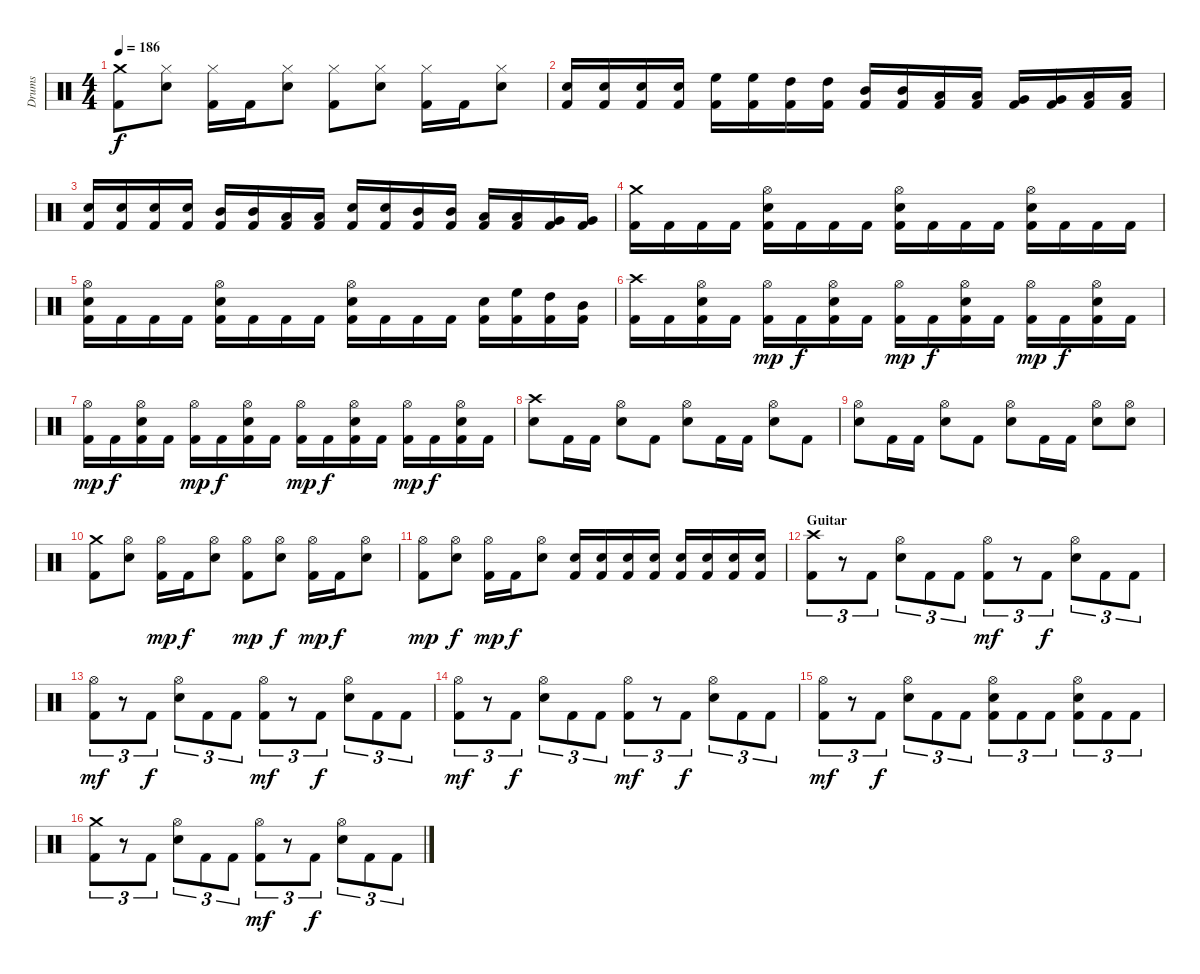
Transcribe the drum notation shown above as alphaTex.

\track ("Drums" "Drums") {instrument percussion}
\staff {score}
\articulation defaults
\ts (4 4)
\tempo 186
\clef neutral
\ks c
("Kick (hit) 2" "Crash medium (hit)").8{dy f} ("Snare (hit) 2" "Hi-Hat (closed)").8 ("Kick (hit) 2" "Hi-Hat (closed)").16 "Kick (hit) 2".16 ("Snare (hit) 2" "Hi-Hat (closed)").8 ("Kick (hit) 2" "Hi-Hat (closed)").8 ("Snare (hit) 2" "Hi-Hat (closed)").8 ("Kick (hit) 2" "Hi-Hat (closed)").16 "Kick (hit) 2".16 ("Snare (hit) 2" "Hi-Hat (closed)").8 |
("Kick (hit) 2" "Snare (hit) 2").16 ("Kick (hit) 2" "Snare (hit) 2").16 ("Kick (hit) 2" "Snare (hit) 2").16 ("Kick (hit) 2" "Snare (hit) 2").16 ("Kick (hit) 2" "High Floor Tom (hit)").16 ("Kick (hit) 2" "High Floor Tom (hit)").16 ("Kick (hit) 2" "High Tom (hit)").16 ("Kick (hit) 2" "High Tom (hit)").16 ("Kick (hit) 2" "Mid Tom (hit)").16 ("Kick (hit) 2" "Mid Tom (hit)").16 ("Kick (hit) 2" "Low Tom (hit)").16 ("Kick (hit) 2" "Low Tom (hit)").16 ("Kick (hit) 2" "Very Low Tom (hit)").16 ("Kick (hit) 2" "Very Low Tom (hit)").16 ("Kick (hit) 2" "Low Floor Tom (hit)").16 ("Kick (hit) 2" "Low Floor Tom (hit)").16 |
("Kick (hit) 2" "Snare (hit) 2").16 ("Kick (hit) 2" "Snare (hit) 2").16 ("Kick (hit) 2" "Snare (hit) 2").16 ("Kick (hit) 2" "Snare (hit) 2").16 ("Kick (hit) 2" "Mid Tom (hit)").16 ("Kick (hit) 2" "Mid Tom (hit)").16 ("Kick (hit) 2" "Low Tom (hit)").16 ("Kick (hit) 2" "Low Tom (hit)").16 ("Kick (hit) 2" "Snare (hit) 2").16 ("Kick (hit) 2" "Snare (hit) 2").16 ("Kick (hit) 2" "Mid Tom (hit)").16 ("Kick (hit) 2" "Mid Tom (hit)").16 ("Kick (hit) 2" "Low Tom (hit)").16 ("Kick (hit) 2" "Low Tom (hit)").16 ("Kick (hit) 2" "Very Low Tom (hit)").16 ("Kick (hit) 2" "Very Low Tom (hit)").16 |
\section ("" "")
("Kick (hit) 2" "Crash medium (hit)").16 "Kick (hit) 2".16 "Kick (hit) 2".16 "Kick (hit) 2".16 ("Kick (hit) 2" "Snare (hit) 2" "Hi-Hat (open)").16 "Kick (hit) 2".16 "Kick (hit) 2".16 "Kick (hit) 2".16 ("Kick (hit) 2" "Snare (hit) 2" "Hi-Hat (open)").16 "Kick (hit) 2".16 "Kick (hit) 2".16 "Kick (hit) 2".16 ("Kick (hit) 2" "Snare (hit) 2" "Hi-Hat (open)").16 "Kick (hit) 2".16 "Kick (hit) 2".16 "Kick (hit) 2".16 |
("Kick (hit) 2" "Snare (hit) 2" "Hi-Hat (open)").16 "Kick (hit) 2".16 "Kick (hit) 2".16 "Kick (hit) 2".16 ("Kick (hit) 2" "Snare (hit) 2" "Hi-Hat (open)").16 "Kick (hit) 2".16 "Kick (hit) 2".16 "Kick (hit) 2".16 ("Kick (hit) 2" "Snare (hit) 2" "Hi-Hat (open)").16 "Kick (hit) 2".16 "Kick (hit) 2".16 "Kick (hit) 2".16 ("Kick (hit) 2" "Snare (hit) 2").16 ("Kick (hit) 2" "High Floor Tom (hit)").16 ("Kick (hit) 2" "High Tom (hit)").16 ("Kick (hit) 2" "Mid Tom (hit)").16 |
("Kick (hit) 2" "Crash high (hit)").16 "Kick (hit) 2".16 ("Kick (hit) 2" "Snare (hit) 2" "Hi-Hat (open)").16 "Kick (hit) 2".16 ("Kick (hit) 2" "Hi-Hat (open)").16{dy mp} "Kick (hit) 2".16{dy f} ("Kick (hit) 2" "Snare (hit) 2" "Hi-Hat (open)").16 "Kick (hit) 2".16 ("Kick (hit) 2" "Hi-Hat (open)").16{dy mp} "Kick (hit) 2".16{dy f} ("Kick (hit) 2" "Snare (hit) 2" "Hi-Hat (open)").16 "Kick (hit) 2".16 ("Kick (hit) 2" "Hi-Hat (open)").16{dy mp} "Kick (hit) 2".16{dy f} ("Kick (hit) 2" "Snare (hit) 2" "Hi-Hat (open)").16 "Kick (hit) 2".16 |
("Kick (hit) 2" "Hi-Hat (open)").16{dy mp} "Kick (hit) 2".16{dy f} ("Kick (hit) 2" "Snare (hit) 2" "Hi-Hat (open)").16 "Kick (hit) 2".16 ("Kick (hit) 2" "Hi-Hat (open)").16{dy mp} "Kick (hit) 2".16{dy f} ("Kick (hit) 2" "Snare (hit) 2" "Hi-Hat (open)").16 "Kick (hit) 2".16 ("Kick (hit) 2" "Hi-Hat (open)").16{dy mp} "Kick (hit) 2".16{dy f} ("Kick (hit) 2" "Snare (hit) 2" "Hi-Hat (open)").16 "Kick (hit) 2".16 ("Kick (hit) 2" "Hi-Hat (open)").16{dy mp} "Kick (hit) 2".16{dy f} ("Kick (hit) 2" "Snare (hit) 2" "Hi-Hat (open)").16 "Kick (hit) 2".16 |
\section ("" "")
("Snare (hit) 2" "Crash high (hit)").8 "Kick (hit) 2".16 "Kick (hit) 2".16 ("Snare (hit) 2" "Hi-Hat (open)").8 "Kick (hit) 2".8 ("Snare (hit) 2" "Hi-Hat (open)").8 "Kick (hit) 2".16 "Kick (hit) 2".16 ("Snare (hit) 2" "Hi-Hat (open)").8 "Kick (hit) 2".8 |
("Snare (hit) 2" "Hi-Hat (open)").8 "Kick (hit) 2".16 "Kick (hit) 2".16 ("Snare (hit) 2" "Hi-Hat (open)").8 "Kick (hit) 2".8 ("Snare (hit) 2" "Hi-Hat (open)").8 "Kick (hit) 2".16 "Kick (hit) 2".16 ("Snare (hit) 2" "Hi-Hat (open)").8 ("Snare (hit) 2" "Hi-Hat (open)").8 |
("Kick (hit) 2" "Crash medium (hit)").8 ("Snare (hit) 2" "Hi-Hat (open)").8 ("Kick (hit) 2" "Hi-Hat (open)").16{dy mp} "Kick (hit) 2".16{dy f} ("Snare (hit) 2" "Hi-Hat (open)").8 ("Kick (hit) 2" "Hi-Hat (open)").8{dy mp} ("Snare (hit) 2" "Hi-Hat (open)").8{dy f} ("Kick (hit) 2" "Hi-Hat (open)").16{dy mp} "Kick (hit) 2".16{dy f} ("Snare (hit) 2" "Hi-Hat (open)").8 |
("Kick (hit) 2" "Hi-Hat (open)").8{dy mp} ("Snare (hit) 2" "Hi-Hat (open)").8{dy f} ("Kick (hit) 2" "Hi-Hat (open)").16{dy mp} "Kick (hit) 2".16{dy f} ("Snare (hit) 2" "Hi-Hat (open)").8 ("Kick (hit) 2" "Snare (hit) 2").16 ("Kick (hit) 2" "Snare (hit) 2").16 ("Kick (hit) 2" "Snare (hit) 2").16 ("Kick (hit) 2" "Snare (hit) 2").16 ("Kick (hit) 2" "Snare (hit) 2").16 ("Kick (hit) 2" "Snare (hit) 2").16 ("Kick (hit) 2" "Snare (hit) 2").16 ("Kick (hit) 2" "Snare (hit) 2").16 |
\section ("" "Guitar")
("Kick (hit) 2" "Crash high (hit)").8{tu (3 2)} r.8{tu (3 2)} "Kick (hit) 2".8{tu (3 2)} ("Snare (hit) 2" "Hi-Hat (open)").8{tu (3 2)} "Kick (hit) 2".8{tu (3 2)} "Kick (hit) 2".8{tu (3 2)} ("Kick (hit) 2" "Hi-Hat (open)").8{tu (3 2) dy mf} r.8{tu (3 2)} "Kick (hit) 2".8{tu (3 2) dy f} ("Snare (hit) 2" "Hi-Hat (open)").8{tu (3 2)} "Kick (hit) 2".8{tu (3 2)} "Kick (hit) 2".8{tu (3 2)} |
("Kick (hit) 2" "Hi-Hat (open)").8{tu (3 2) dy mf} r.8{tu (3 2)} "Kick (hit) 2".8{tu (3 2) dy f} ("Snare (hit) 2" "Hi-Hat (open)").8{tu (3 2)} "Kick (hit) 2".8{tu (3 2)} "Kick (hit) 2".8{tu (3 2)} ("Kick (hit) 2" "Hi-Hat (open)").8{tu (3 2) dy mf} r.8{tu (3 2)} "Kick (hit) 2".8{tu (3 2) dy f} ("Snare (hit) 2" "Hi-Hat (open)").8{tu (3 2)} "Kick (hit) 2".8{tu (3 2)} "Kick (hit) 2".8{tu (3 2)} |
("Kick (hit) 2" "Hi-Hat (open)").8{tu (3 2) dy mf} r.8{tu (3 2)} "Kick (hit) 2".8{tu (3 2) dy f} ("Snare (hit) 2" "Hi-Hat (open)").8{tu (3 2)} "Kick (hit) 2".8{tu (3 2)} "Kick (hit) 2".8{tu (3 2)} ("Kick (hit) 2" "Hi-Hat (open)").8{tu (3 2) dy mf} r.8{tu (3 2)} "Kick (hit) 2".8{tu (3 2) dy f} ("Snare (hit) 2" "Hi-Hat (open)").8{tu (3 2)} "Kick (hit) 2".8{tu (3 2)} "Kick (hit) 2".8{tu (3 2)} |
("Kick (hit) 2" "Hi-Hat (open)").8{tu (3 2) dy mf} r.8{tu (3 2)} "Kick (hit) 2".8{tu (3 2) dy f} ("Snare (hit) 2" "Hi-Hat (open)").8{tu (3 2)} "Kick (hit) 2".8{tu (3 2)} "Kick (hit) 2".8{tu (3 2)} ("Kick (hit) 2" "Snare (hit) 2" "Hi-Hat (open)").8{tu (3 2)} "Kick (hit) 2".8{tu (3 2)} "Kick (hit) 2".8{tu (3 2)} ("Kick (hit) 2" "Snare (hit) 2" "Hi-Hat (open)").8{tu (3 2)} "Kick (hit) 2".8{tu (3 2)} "Kick (hit) 2".8{tu (3 2)} |
\section ("" "")
("Kick (hit) 2" "Crash medium (hit)").8{tu (3 2)} r.8{tu (3 2)} "Kick (hit) 2".8{tu (3 2)} ("Snare (hit) 2" "Hi-Hat (open)").8{tu (3 2)} "Kick (hit) 2".8{tu (3 2)} "Kick (hit) 2".8{tu (3 2)} ("Kick (hit) 2" "Hi-Hat (open)").8{tu (3 2) dy mf} r.8{tu (3 2)} "Kick (hit) 2".8{tu (3 2) dy f} ("Snare (hit) 2" "Hi-Hat (open)").8{tu (3 2)} "Kick (hit) 2".8{tu (3 2)} "Kick (hit) 2".8{tu (3 2)}
